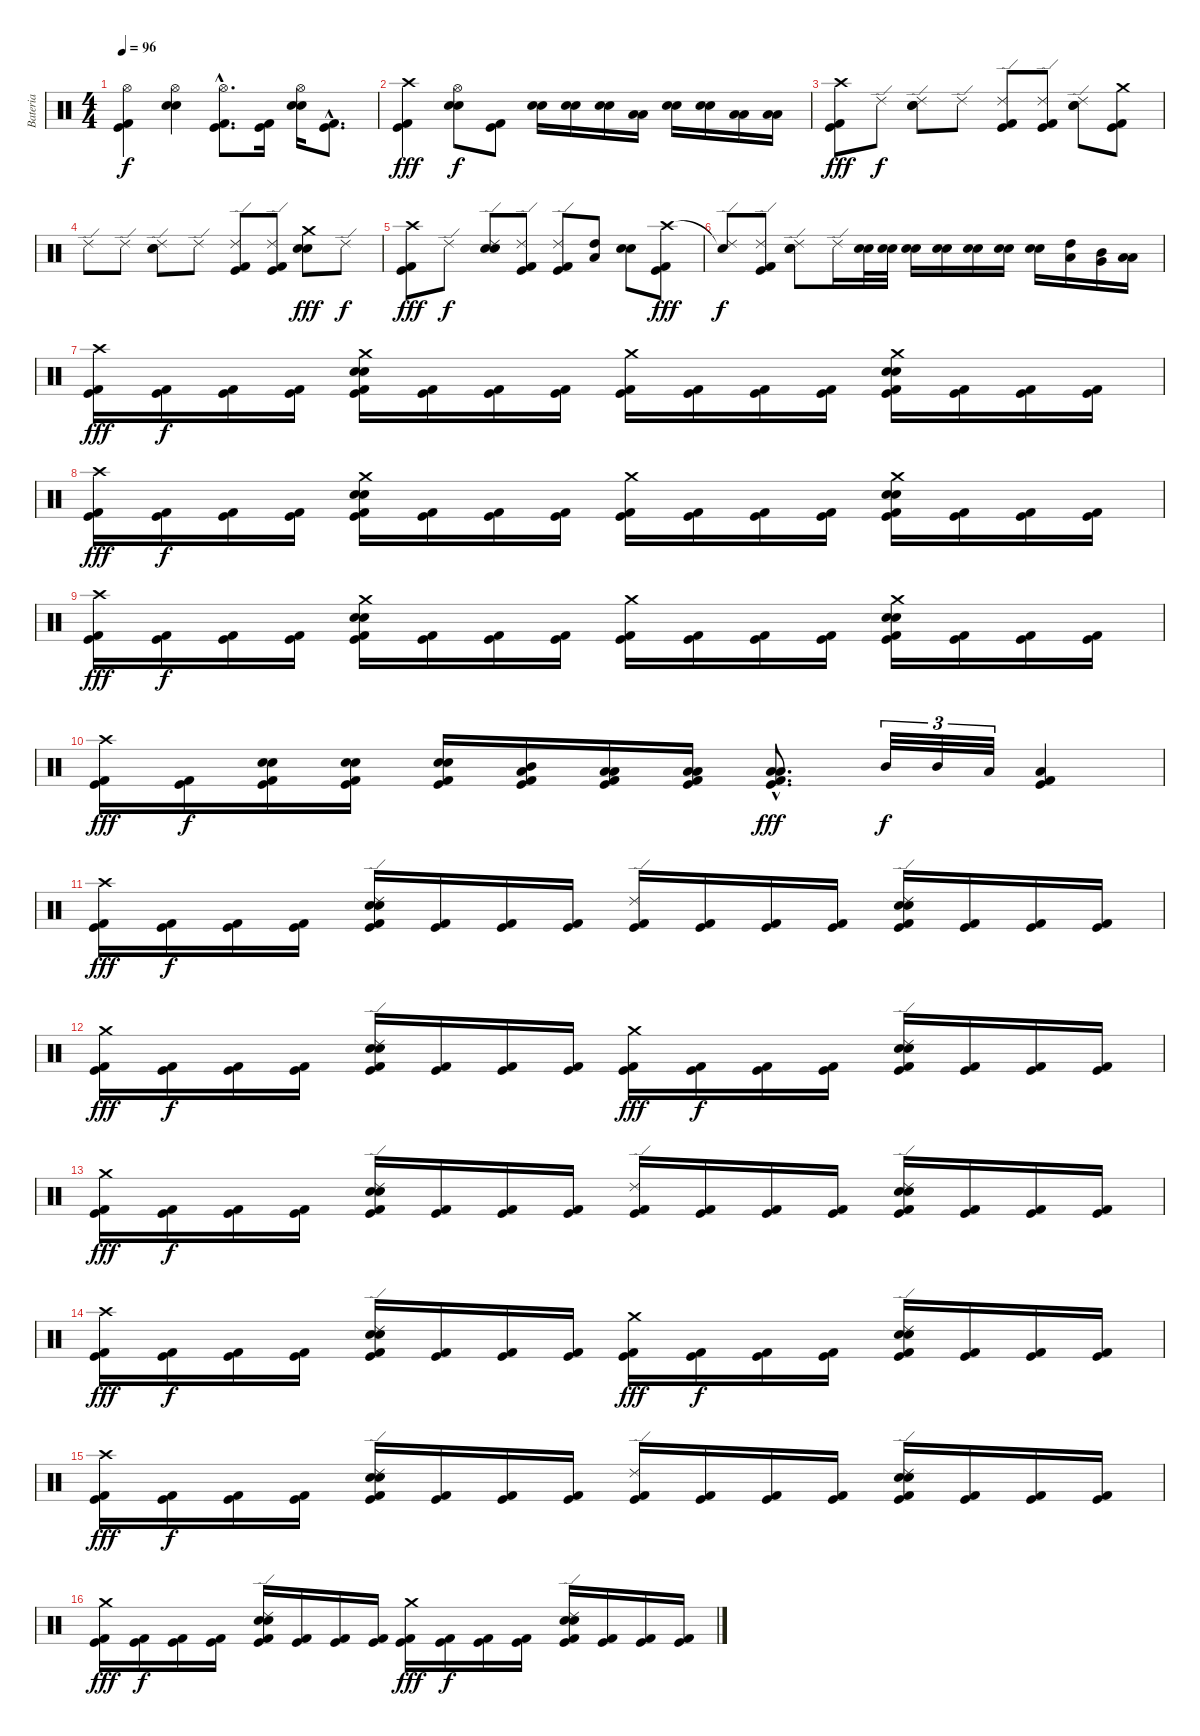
\track ("Bateria" "Bateria") {instrument percussion}
\staff {score}
\articulation defaults
\ts (4 4)
\tempo 96
\clef neutral
\ks c
("Hi-Hat (open)" "Kick (hit) 2" "Kick (hit)").4{dy f} ("Hi-Hat (open)" "Electric Snare (hit)" "Snare (hit) 2").4 ("Hi-Hat (open)"{hac} "Kick (hit) 2"{hac} "Kick (hit)"{hac}).8{d} ("Kick (hit) 2" "Kick (hit)").16 ("Hi-Hat (open)" "Electric Snare (hit)" "Snare (hit) 2").16 ("Kick (hit) 2"{hac} "Kick (hit)"{hac}).8{d} |
("Crash high (hit)" "Kick (hit) 2" "Kick (hit)").4{dy fff} ("Hi-Hat (open)" "Electric Snare (hit)" "Snare (hit) 2").8{dy f} ("Kick (hit) 2" "Kick (hit)").8 ("Electric Snare (hit)" "Snare (hit) 2").16 ("Electric Snare (hit)" "Snare (hit) 2").16 ("Electric Snare (hit)" "Snare (hit) 2").16 ("Low Tom (hit)" "Low Floor Tom (hit)").16 ("Electric Snare (hit)" "Snare (hit) 2").16 ("Electric Snare (hit)" "Snare (hit) 2").16 ("Low Tom (hit)" "Low Floor Tom (hit)").16 ("Low Tom (hit)" "Low Floor Tom (hit)").16 |
("Crash high (hit)" "Kick (hit) 2" "Kick (hit)").8{dy fff} "Ride (edge) 2".8{dy f} ("Ride (edge) 2" "Electric Snare (hit)" "Snare (hit) 2").8 "Ride (edge) 2".8 ("Ride (edge) 2" "Kick (hit) 2" "Kick (hit)").8 ("Ride (edge) 2" "Kick (hit) 2" "Kick (hit)").8 ("Ride (edge) 2" "Electric Snare (hit)" "Snare (hit) 2").8 ("Crash medium (hit)" "Kick (hit) 2" "Kick (hit)").8 |
"Ride (edge) 2".8 "Ride (edge) 2".8 ("Ride (edge) 2" "Electric Snare (hit)" "Snare (hit) 2").8 "Ride (edge) 2".8 ("Ride (edge) 2" "Kick (hit) 2" "Kick (hit)").8 ("Ride (edge) 2" "Kick (hit) 2" "Kick (hit)").8 ("Crash medium (hit)" "Electric Snare (hit)" "Snare (hit) 2").8{dy fff} "Ride (edge) 2".8{dy f} |
("Crash high (hit)" "Kick (hit) 2" "Kick (hit)").8{dy fff} "Ride (edge) 2".8{dy f} ("Ride (edge) 2" "Electric Snare (hit)" "Snare (hit) 2").8 ("Ride (edge) 2" "Kick (hit) 2" "Kick (hit)").8 ("Ride (edge) 2" "Kick (hit) 2" "Kick (hit)").8 ("High Tom (hit)" "Low Tom (hit)").8 ("Electric Snare (hit)" "Snare (hit) 2").8 ("Crash high (hit)" "Kick (hit) 2" "Kick (hit)").8{dy fff} |
("Snare (hit)"{t} "Ride (edge) 2").8{dy f} ("Ride (edge) 2" "Kick (hit) 2" "Kick (hit)").8 ("Ride (edge) 2" "Electric Snare (hit)" "Snare (hit) 2").8 "Ride (edge) 2".16 ("Electric Snare (hit)" "Snare (hit) 2").32 ("Electric Snare (hit)" "Snare (hit) 2").32 ("Electric Snare (hit)" "Snare (hit) 2").16 ("Electric Snare (hit)" "Snare (hit) 2").16 ("Electric Snare (hit)" "Snare (hit) 2").16 ("Electric Snare (hit)" "Snare (hit) 2").16 ("Electric Snare (hit)" "Snare (hit) 2").16 ("High Tom (hit)" "Low Tom (hit)").16 ("Mid Tom (hit)" "Very Low Tom (hit)").16 ("Low Tom (hit)" "Low Floor Tom (hit)").16 |
("Crash high (hit)" "Kick (hit) 2" "Kick (hit)").16{dy fff} ("Kick (hit) 2" "Kick (hit)").16{dy f} ("Kick (hit) 2" "Kick (hit)").16 ("Kick (hit) 2" "Kick (hit)").16 ("Crash medium (hit)" "Electric Snare (hit)" "Snare (hit) 2" "Kick (hit) 2" "Kick (hit)").16 ("Kick (hit) 2" "Kick (hit)").16 ("Kick (hit) 2" "Kick (hit)").16 ("Kick (hit) 2" "Kick (hit)").16 ("Crash medium (hit)" "Kick (hit) 2" "Kick (hit)").16 ("Kick (hit) 2" "Kick (hit)").16 ("Kick (hit) 2" "Kick (hit)").16 ("Kick (hit) 2" "Kick (hit)").16 ("Crash medium (hit)" "Electric Snare (hit)" "Snare (hit) 2" "Kick (hit) 2" "Kick (hit)").16 ("Kick (hit) 2" "Kick (hit)").16 ("Kick (hit) 2" "Kick (hit)").16 ("Kick (hit) 2" "Kick (hit)").16 |
("Crash high (hit)" "Kick (hit) 2" "Kick (hit)").16{dy fff} ("Kick (hit) 2" "Kick (hit)").16{dy f} ("Kick (hit) 2" "Kick (hit)").16 ("Kick (hit) 2" "Kick (hit)").16 ("Crash medium (hit)" "Electric Snare (hit)" "Snare (hit) 2" "Kick (hit) 2" "Kick (hit)").16 ("Kick (hit) 2" "Kick (hit)").16 ("Kick (hit) 2" "Kick (hit)").16 ("Kick (hit) 2" "Kick (hit)").16 ("Crash medium (hit)" "Kick (hit) 2" "Kick (hit)").16 ("Kick (hit) 2" "Kick (hit)").16 ("Kick (hit) 2" "Kick (hit)").16 ("Kick (hit) 2" "Kick (hit)").16 ("Crash medium (hit)" "Electric Snare (hit)" "Snare (hit) 2" "Kick (hit) 2" "Kick (hit)").16 ("Kick (hit) 2" "Kick (hit)").16 ("Kick (hit) 2" "Kick (hit)").16 ("Kick (hit) 2" "Kick (hit)").16 |
("Crash high (hit)" "Kick (hit) 2" "Kick (hit)").16{dy fff} ("Kick (hit) 2" "Kick (hit)").16{dy f} ("Kick (hit) 2" "Kick (hit)").16 ("Kick (hit) 2" "Kick (hit)").16 ("Crash medium (hit)" "Electric Snare (hit)" "Snare (hit) 2" "Kick (hit) 2" "Kick (hit)").16 ("Kick (hit) 2" "Kick (hit)").16 ("Kick (hit) 2" "Kick (hit)").16 ("Kick (hit) 2" "Kick (hit)").16 ("Crash medium (hit)" "Kick (hit) 2" "Kick (hit)").16 ("Kick (hit) 2" "Kick (hit)").16 ("Kick (hit) 2" "Kick (hit)").16 ("Kick (hit) 2" "Kick (hit)").16 ("Crash medium (hit)" "Electric Snare (hit)" "Snare (hit) 2" "Kick (hit) 2" "Kick (hit)").16 ("Kick (hit) 2" "Kick (hit)").16 ("Kick (hit) 2" "Kick (hit)").16 ("Kick (hit) 2" "Kick (hit)").16 |
("Crash high (hit)" "Kick (hit) 2" "Kick (hit)").16{dy fff} ("Kick (hit) 2" "Kick (hit)").16{dy f} ("Electric Snare (hit)" "Snare (hit) 2" "Kick (hit) 2" "Kick (hit)").16 ("Electric Snare (hit)" "Snare (hit) 2" "Kick (hit) 2" "Kick (hit)").16 ("Electric Snare (hit)" "Snare (hit) 2" "Kick (hit) 2" "Kick (hit)").16 ("Mid Tom (hit)" "Low Tom (hit)" "Kick (hit) 2" "Kick (hit)").16 ("Low Tom (hit)" "Low Floor Tom (hit)" "Kick (hit) 2" "Kick (hit)").16 ("Low Tom (hit)" "Low Floor Tom (hit)" "Kick (hit) 2" "Kick (hit)").16 ("Low Tom (hit)"{hac} "Low Floor Tom (hit)"{hac} "Kick (hit) 2"{hac} "Kick (hit)"{hac}).8{d dy fff} "Mid Tom (hit)".32{tu (3 2) dy f} "Mid Tom (hit)".32{tu (3 2)} "Low Tom (hit)".32{tu (3 2)} ("Low Tom (hit)" "Kick (hit) 2" "Kick (hit)").4 |
("Crash high (hit)" "Kick (hit) 2" "Kick (hit)").16{dy fff} ("Kick (hit) 2" "Kick (hit)").16{dy f} ("Kick (hit) 2" "Kick (hit)").16 ("Kick (hit) 2" "Kick (hit)").16 ("Ride (edge) 2" "Electric Snare (hit)" "Snare (hit) 2" "Kick (hit) 2" "Kick (hit)").16 ("Kick (hit) 2" "Kick (hit)").16 ("Kick (hit) 2" "Kick (hit)").16 ("Kick (hit) 2" "Kick (hit)").16 ("Ride (edge) 2" "Kick (hit) 2" "Kick (hit)").16 ("Kick (hit) 2" "Kick (hit)").16 ("Kick (hit) 2" "Kick (hit)").16 ("Kick (hit) 2" "Kick (hit)").16 ("Ride (edge) 2" "Electric Snare (hit)" "Snare (hit) 2" "Kick (hit) 2" "Kick (hit)").16 ("Kick (hit) 2" "Kick (hit)").16 ("Kick (hit) 2" "Kick (hit)").16 ("Kick (hit) 2" "Kick (hit)").16 |
("Crash medium (hit)" "Kick (hit) 2" "Kick (hit)").16{dy fff} ("Kick (hit) 2" "Kick (hit)").16{dy f} ("Kick (hit) 2" "Kick (hit)").16 ("Kick (hit) 2" "Kick (hit)").16 ("Ride (edge) 2" "Electric Snare (hit)" "Snare (hit) 2" "Kick (hit) 2" "Kick (hit)").16 ("Kick (hit) 2" "Kick (hit)").16 ("Kick (hit) 2" "Kick (hit)").16 ("Kick (hit) 2" "Kick (hit)").16 ("Crash medium (hit)" "Kick (hit) 2" "Kick (hit)").16{dy fff} ("Kick (hit) 2" "Kick (hit)").16{dy f} ("Kick (hit) 2" "Kick (hit)").16 ("Kick (hit) 2" "Kick (hit)").16 ("Ride (edge) 2" "Electric Snare (hit)" "Snare (hit) 2" "Kick (hit) 2" "Kick (hit)").16 ("Kick (hit) 2" "Kick (hit)").16 ("Kick (hit) 2" "Kick (hit)").16 ("Kick (hit) 2" "Kick (hit)").16 |
("Crash medium (hit)" "Kick (hit) 2" "Kick (hit)").16{dy fff} ("Kick (hit) 2" "Kick (hit)").16{dy f} ("Kick (hit) 2" "Kick (hit)").16 ("Kick (hit) 2" "Kick (hit)").16 ("Ride (edge) 2" "Electric Snare (hit)" "Snare (hit) 2" "Kick (hit) 2" "Kick (hit)").16 ("Kick (hit) 2" "Kick (hit)").16 ("Kick (hit) 2" "Kick (hit)").16 ("Kick (hit) 2" "Kick (hit)").16 ("Ride (edge) 2" "Kick (hit) 2" "Kick (hit)").16 ("Kick (hit) 2" "Kick (hit)").16 ("Kick (hit) 2" "Kick (hit)").16 ("Kick (hit) 2" "Kick (hit)").16 ("Ride (edge) 2" "Electric Snare (hit)" "Snare (hit) 2" "Kick (hit) 2" "Kick (hit)").16 ("Kick (hit) 2" "Kick (hit)").16 ("Kick (hit) 2" "Kick (hit)").16 ("Kick (hit) 2" "Kick (hit)").16 |
("Crash high (hit)" "Kick (hit) 2" "Kick (hit)").16{dy fff} ("Kick (hit) 2" "Kick (hit)").16{dy f} ("Kick (hit) 2" "Kick (hit)").16 ("Kick (hit) 2" "Kick (hit)").16 ("Ride (edge) 2" "Electric Snare (hit)" "Snare (hit) 2" "Kick (hit) 2" "Kick (hit)").16 ("Kick (hit) 2" "Kick (hit)").16 ("Kick (hit) 2" "Kick (hit)").16 ("Kick (hit) 2" "Kick (hit)").16 ("Crash medium (hit)" "Kick (hit) 2" "Kick (hit)").16{dy fff} ("Kick (hit) 2" "Kick (hit)").16{dy f} ("Kick (hit) 2" "Kick (hit)").16 ("Kick (hit) 2" "Kick (hit)").16 ("Ride (edge) 2" "Electric Snare (hit)" "Snare (hit) 2" "Kick (hit) 2" "Kick (hit)").16 ("Kick (hit) 2" "Kick (hit)").16 ("Kick (hit) 2" "Kick (hit)").16 ("Kick (hit) 2" "Kick (hit)").16 |
("Crash high (hit)" "Kick (hit) 2" "Kick (hit)").16{dy fff} ("Kick (hit) 2" "Kick (hit)").16{dy f} ("Kick (hit) 2" "Kick (hit)").16 ("Kick (hit) 2" "Kick (hit)").16 ("Ride (edge) 2" "Electric Snare (hit)" "Snare (hit) 2" "Kick (hit) 2" "Kick (hit)").16 ("Kick (hit) 2" "Kick (hit)").16 ("Kick (hit) 2" "Kick (hit)").16 ("Kick (hit) 2" "Kick (hit)").16 ("Ride (edge) 2" "Kick (hit) 2" "Kick (hit)").16 ("Kick (hit) 2" "Kick (hit)").16 ("Kick (hit) 2" "Kick (hit)").16 ("Kick (hit) 2" "Kick (hit)").16 ("Ride (edge) 2" "Electric Snare (hit)" "Snare (hit) 2" "Kick (hit) 2" "Kick (hit)").16 ("Kick (hit) 2" "Kick (hit)").16 ("Kick (hit) 2" "Kick (hit)").16 ("Kick (hit) 2" "Kick (hit)").16 |
("Crash medium (hit)" "Kick (hit) 2" "Kick (hit)").16{dy fff} ("Kick (hit) 2" "Kick (hit)").16{dy f} ("Kick (hit) 2" "Kick (hit)").16 ("Kick (hit) 2" "Kick (hit)").16 ("Ride (edge) 2" "Electric Snare (hit)" "Snare (hit) 2" "Kick (hit) 2" "Kick (hit)").16 ("Kick (hit) 2" "Kick (hit)").16 ("Kick (hit) 2" "Kick (hit)").16 ("Kick (hit) 2" "Kick (hit)").16 ("Crash medium (hit)" "Kick (hit) 2" "Kick (hit)").16{dy fff} ("Kick (hit) 2" "Kick (hit)").16{dy f} ("Kick (hit) 2" "Kick (hit)").16 ("Kick (hit) 2" "Kick (hit)").16 ("Ride (edge) 2" "Electric Snare (hit)" "Snare (hit) 2" "Kick (hit) 2" "Kick (hit)").16 ("Kick (hit) 2" "Kick (hit)").16 ("Kick (hit) 2" "Kick (hit)").16 ("Kick (hit) 2" "Kick (hit)").16
